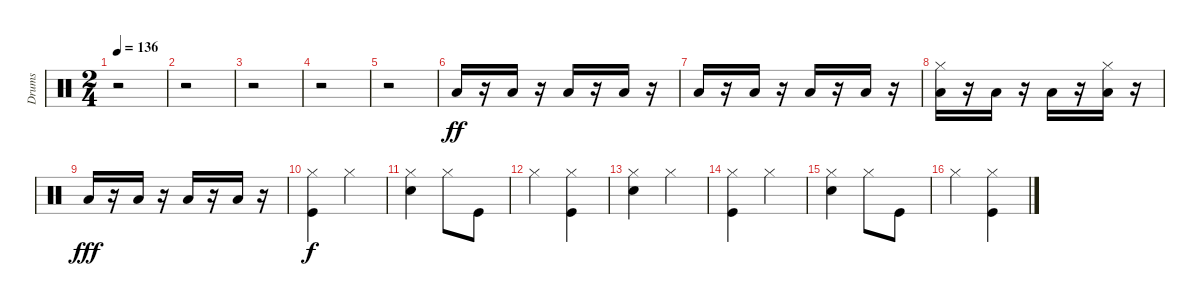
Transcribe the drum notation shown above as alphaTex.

\track ("Drums" "Drums") {instrument percussion}
\staff {score}
\articulation defaults
\ts (2 4)
\tempo 136
\clef neutral
\ks c
r.2{dy ff} |
r.2 |
r.2 |
r.2 |
r.2 |
"Low Tom (hit)".16 r.16 "Low Tom (hit)".16 r.16 "Low Tom (hit)".16 r.16 "Low Tom (hit)".16 r.16 |
"Low Tom (hit)".16 r.16 "Low Tom (hit)".16 r.16 "Low Tom (hit)".16 r.16 "Low Tom (hit)".16 r.16 |
("Low Tom (hit)" "Hi-Hat (closed)").16 r.16 "Low Tom (hit)".16 r.16 "Low Tom (hit)".16 r.16 ("Low Tom (hit)" "Hi-Hat (closed)").16 r.16 |
"Low Tom (hit)".16{dy fff} r.16 "Low Tom (hit)".16 r.16 "Low Tom (hit)".16 r.16 "Low Tom (hit)".16 r.16 |
("Kick (hit)" "Hi-Hat (closed)").4{dy f} "Hi-Hat (closed)".4 |
("Snare (hit) 2" "Hi-Hat (closed)").4 "Hi-Hat (closed)".8 "Kick (hit)".8 |
"Hi-Hat (closed)".4 ("Kick (hit)" "Hi-Hat (closed)").4 |
("Hi-Hat (closed)" "Snare (hit) 2").4 "Hi-Hat (closed)".4 |
("Kick (hit)" "Hi-Hat (closed)").4 "Hi-Hat (closed)".4 |
("Snare (hit) 2" "Hi-Hat (closed)").4 "Hi-Hat (closed)".8 "Kick (hit)".8 |
"Hi-Hat (closed)".4 ("Kick (hit)" "Hi-Hat (closed)").4
